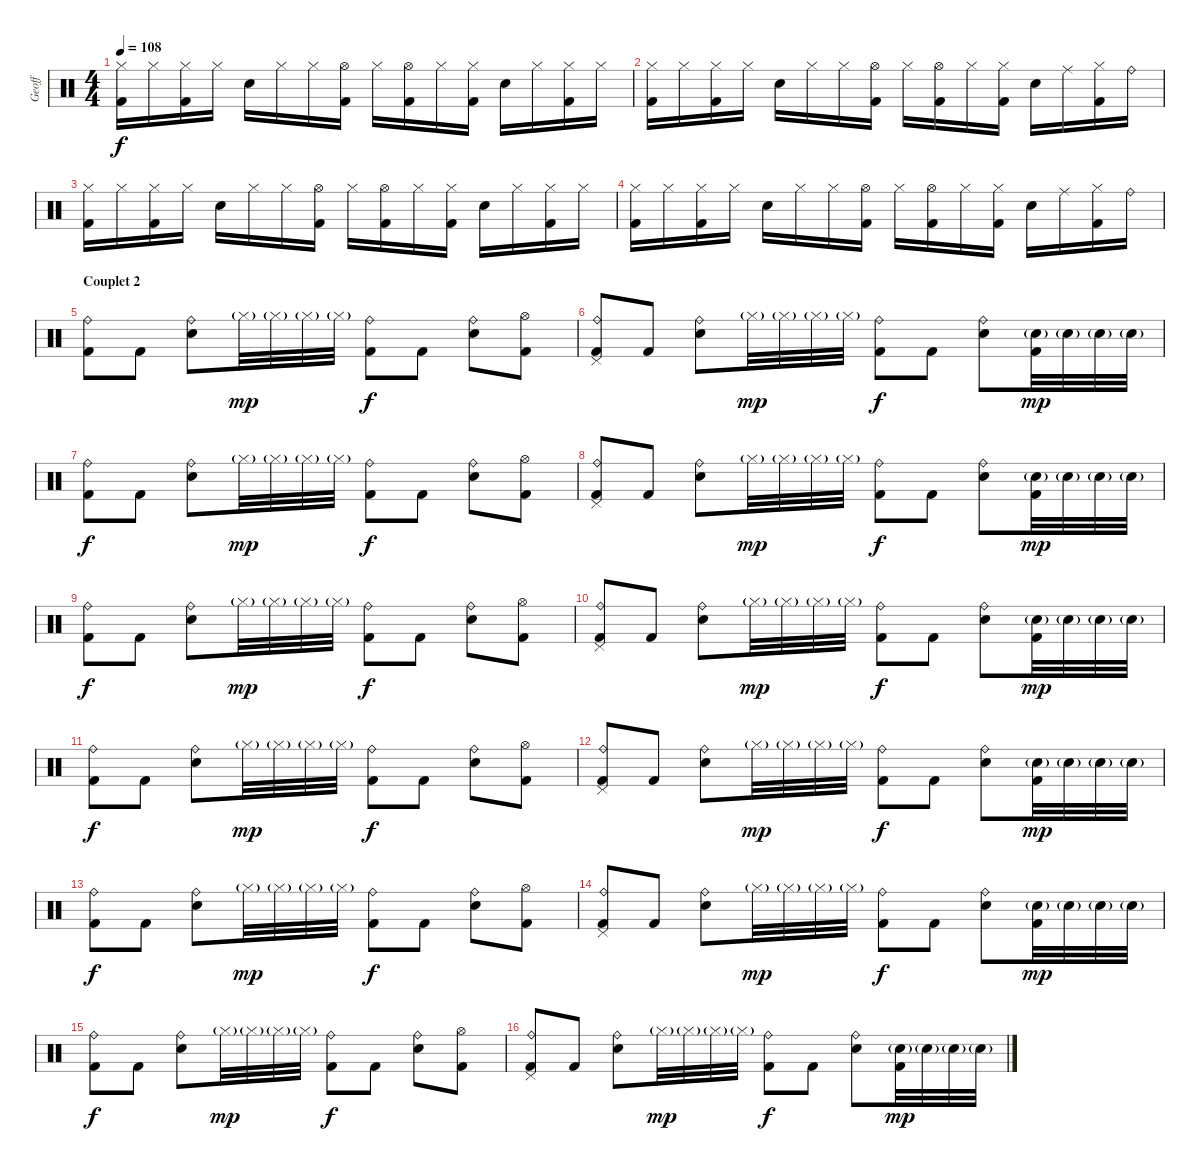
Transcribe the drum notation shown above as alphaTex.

\track ("Geoff" "Geoff") {instrument percussion}
\staff {score}
\articulation defaults
\ts (4 4)
\tempo 108
\clef neutral
\ks c
("Hi-Hat (closed)" "Kick (hit) 2").16{dy f} "Hi-Hat (closed)".16 ("Hi-Hat (closed)" "Kick (hit) 2").16 "Hi-Hat (closed)".16 "Electric Snare (hit)".16 "Hi-Hat (closed)".16 "Hi-Hat (closed)".16 ("Hi-Hat (open)" "Kick (hit) 2").16 "Hi-Hat (closed)".16 ("Hi-Hat (open)" "Kick (hit) 2").16 "Hi-Hat (closed)".16 ("Hi-Hat (closed)" "Kick (hit) 2").16 "Electric Snare (hit)".16 "Hi-Hat (closed)".16 ("Hi-Hat (closed)" "Kick (hit) 2").16 "Hi-Hat (closed)".16 |
("Hi-Hat (closed)" "Kick (hit) 2").16 "Hi-Hat (closed)".16 ("Hi-Hat (closed)" "Kick (hit) 2").16 "Hi-Hat (closed)".16 "Electric Snare (hit)".16 "Hi-Hat (closed)".16 "Hi-Hat (closed)".16 ("Hi-Hat (open)" "Kick (hit) 2").16 "Hi-Hat (closed)".16 ("Hi-Hat (open)" "Kick (hit) 2").16 "Hi-Hat (closed)".16 ("Hi-Hat (closed)" "Kick (hit) 2").16 "Electric Snare (hit)".16 "Ride (middle)".16 ("Hi-Hat (closed)" "Kick (hit) 2").16 "Ride (bell)".16 |
("Hi-Hat (closed)" "Kick (hit) 2").16 "Hi-Hat (closed)".16 ("Hi-Hat (closed)" "Kick (hit) 2").16 "Hi-Hat (closed)".16 "Electric Snare (hit)".16 "Hi-Hat (closed)".16 "Hi-Hat (closed)".16 ("Hi-Hat (open)" "Kick (hit) 2").16 "Hi-Hat (closed)".16 ("Hi-Hat (open)" "Kick (hit) 2").16 "Hi-Hat (closed)".16 ("Hi-Hat (closed)" "Kick (hit) 2").16 "Electric Snare (hit)".16 "Hi-Hat (closed)".16 ("Hi-Hat (closed)" "Kick (hit) 2").16 "Hi-Hat (closed)".16 |
("Hi-Hat (closed)" "Kick (hit) 2").16 "Hi-Hat (closed)".16 ("Hi-Hat (closed)" "Kick (hit) 2").16 "Hi-Hat (closed)".16 "Electric Snare (hit)".16 "Hi-Hat (closed)".16 "Hi-Hat (closed)".16 ("Hi-Hat (open)" "Kick (hit) 2").16 "Hi-Hat (closed)".16 ("Hi-Hat (open)" "Kick (hit) 2").16 "Hi-Hat (closed)".16 ("Hi-Hat (closed)" "Kick (hit) 2").16 "Electric Snare (hit)".16 "Ride (middle)".16 ("Hi-Hat (closed)" "Kick (hit) 2").16 "Ride (bell)".16 |
\section ("" "Couplet 2")
("Ride (bell)" "Kick (hit) 2").8 "Kick (hit) 2".8 ("Ride (bell)" "Electric Snare (hit)").8 "Hi-Hat (closed)"{g}.32{dy mp} "Hi-Hat (closed)"{g}.32 "Hi-Hat (closed)"{g}.32 "Hi-Hat (closed)"{g}.32 ("Ride (bell)" "Kick (hit) 2").8{dy f} "Kick (hit) 2".8 ("Ride (bell)" "Electric Snare (hit)").8 ("Hi-Hat (open)" "Kick (hit) 2").8 |
("Ride (bell)" "Pedal Hi-Hat (hit)" "Kick (hit) 2").8 "Kick (hit) 2".8 ("Ride (bell)" "Electric Snare (hit)").8 "Hi-Hat (closed)"{g}.32{dy mp} "Hi-Hat (closed)"{g}.32 "Hi-Hat (closed)"{g}.32 "Hi-Hat (closed)"{g}.32 ("Ride (bell)" "Kick (hit) 2").8{dy f} "Kick (hit) 2".8 ("Ride (bell)" "Electric Snare (hit)").8 ("Electric Snare (hit)"{g} "Kick (hit) 2").32{dy mp} "Electric Snare (hit)"{g}.32 "Electric Snare (hit)"{g}.32 "Electric Snare (hit)"{g}.32 |
("Ride (bell)" "Kick (hit) 2").8{dy f} "Kick (hit) 2".8 ("Ride (bell)" "Electric Snare (hit)").8 "Hi-Hat (closed)"{g}.32{dy mp} "Hi-Hat (closed)"{g}.32 "Hi-Hat (closed)"{g}.32 "Hi-Hat (closed)"{g}.32 ("Ride (bell)" "Kick (hit) 2").8{dy f} "Kick (hit) 2".8 ("Ride (bell)" "Electric Snare (hit)").8 ("Hi-Hat (open)" "Kick (hit) 2").8 |
("Ride (bell)" "Pedal Hi-Hat (hit)" "Kick (hit) 2").8 "Kick (hit) 2".8 ("Ride (bell)" "Electric Snare (hit)").8 "Hi-Hat (closed)"{g}.32{dy mp} "Hi-Hat (closed)"{g}.32 "Hi-Hat (closed)"{g}.32 "Hi-Hat (closed)"{g}.32 ("Ride (bell)" "Kick (hit) 2").8{dy f} "Kick (hit) 2".8 ("Ride (bell)" "Electric Snare (hit)").8 ("Electric Snare (hit)"{g} "Kick (hit) 2").32{dy mp} "Electric Snare (hit)"{g}.32 "Electric Snare (hit)"{g}.32 "Electric Snare (hit)"{g}.32 |
("Ride (bell)" "Kick (hit) 2").8{dy f} "Kick (hit) 2".8 ("Ride (bell)" "Electric Snare (hit)").8 "Hi-Hat (closed)"{g}.32{dy mp} "Hi-Hat (closed)"{g}.32 "Hi-Hat (closed)"{g}.32 "Hi-Hat (closed)"{g}.32 ("Ride (bell)" "Kick (hit) 2").8{dy f} "Kick (hit) 2".8 ("Ride (bell)" "Electric Snare (hit)").8 ("Hi-Hat (open)" "Kick (hit) 2").8 |
("Ride (bell)" "Pedal Hi-Hat (hit)" "Kick (hit) 2").8 "Kick (hit) 2".8 ("Ride (bell)" "Electric Snare (hit)").8 "Hi-Hat (closed)"{g}.32{dy mp} "Hi-Hat (closed)"{g}.32 "Hi-Hat (closed)"{g}.32 "Hi-Hat (closed)"{g}.32 ("Ride (bell)" "Kick (hit) 2").8{dy f} "Kick (hit) 2".8 ("Ride (bell)" "Electric Snare (hit)").8 ("Electric Snare (hit)"{g} "Kick (hit) 2").32{dy mp} "Electric Snare (hit)"{g}.32 "Electric Snare (hit)"{g}.32 "Electric Snare (hit)"{g}.32 |
("Ride (bell)" "Kick (hit) 2").8{dy f} "Kick (hit) 2".8 ("Ride (bell)" "Electric Snare (hit)").8 "Hi-Hat (closed)"{g}.32{dy mp} "Hi-Hat (closed)"{g}.32 "Hi-Hat (closed)"{g}.32 "Hi-Hat (closed)"{g}.32 ("Ride (bell)" "Kick (hit) 2").8{dy f} "Kick (hit) 2".8 ("Ride (bell)" "Electric Snare (hit)").8 ("Hi-Hat (open)" "Kick (hit) 2").8 |
("Ride (bell)" "Pedal Hi-Hat (hit)" "Kick (hit) 2").8 "Kick (hit) 2".8 ("Ride (bell)" "Electric Snare (hit)").8 "Hi-Hat (closed)"{g}.32{dy mp} "Hi-Hat (closed)"{g}.32 "Hi-Hat (closed)"{g}.32 "Hi-Hat (closed)"{g}.32 ("Ride (bell)" "Kick (hit) 2").8{dy f} "Kick (hit) 2".8 ("Ride (bell)" "Electric Snare (hit)").8 ("Electric Snare (hit)"{g} "Kick (hit) 2").32{dy mp} "Electric Snare (hit)"{g}.32 "Electric Snare (hit)"{g}.32 "Electric Snare (hit)"{g}.32 |
("Ride (bell)" "Kick (hit) 2").8{dy f} "Kick (hit) 2".8 ("Ride (bell)" "Electric Snare (hit)").8 "Hi-Hat (closed)"{g}.32{dy mp} "Hi-Hat (closed)"{g}.32 "Hi-Hat (closed)"{g}.32 "Hi-Hat (closed)"{g}.32 ("Ride (bell)" "Kick (hit) 2").8{dy f} "Kick (hit) 2".8 ("Ride (bell)" "Electric Snare (hit)").8 ("Hi-Hat (open)" "Kick (hit) 2").8 |
("Ride (bell)" "Pedal Hi-Hat (hit)" "Kick (hit) 2").8 "Kick (hit) 2".8 ("Ride (bell)" "Electric Snare (hit)").8 "Hi-Hat (closed)"{g}.32{dy mp} "Hi-Hat (closed)"{g}.32 "Hi-Hat (closed)"{g}.32 "Hi-Hat (closed)"{g}.32 ("Ride (bell)" "Kick (hit) 2").8{dy f} "Kick (hit) 2".8 ("Ride (bell)" "Electric Snare (hit)").8 ("Electric Snare (hit)"{g} "Kick (hit) 2").32{dy mp} "Electric Snare (hit)"{g}.32 "Electric Snare (hit)"{g}.32 "Electric Snare (hit)"{g}.32 |
("Ride (bell)" "Kick (hit) 2").8{dy f} "Kick (hit) 2".8 ("Ride (bell)" "Electric Snare (hit)").8 "Hi-Hat (closed)"{g}.32{dy mp} "Hi-Hat (closed)"{g}.32 "Hi-Hat (closed)"{g}.32 "Hi-Hat (closed)"{g}.32 ("Ride (bell)" "Kick (hit) 2").8{dy f} "Kick (hit) 2".8 ("Ride (bell)" "Electric Snare (hit)").8 ("Hi-Hat (open)" "Kick (hit) 2").8 |
("Ride (bell)" "Pedal Hi-Hat (hit)" "Kick (hit) 2").8 "Kick (hit) 2".8 ("Ride (bell)" "Electric Snare (hit)").8 "Hi-Hat (closed)"{g}.32{dy mp} "Hi-Hat (closed)"{g}.32 "Hi-Hat (closed)"{g}.32 "Hi-Hat (closed)"{g}.32 ("Ride (bell)" "Kick (hit) 2").8{dy f} "Kick (hit) 2".8 ("Ride (bell)" "Electric Snare (hit)").8 ("Electric Snare (hit)"{g} "Kick (hit) 2").32{dy mp} "Electric Snare (hit)"{g}.32 "Electric Snare (hit)"{g}.32 "Electric Snare (hit)"{g}.32
